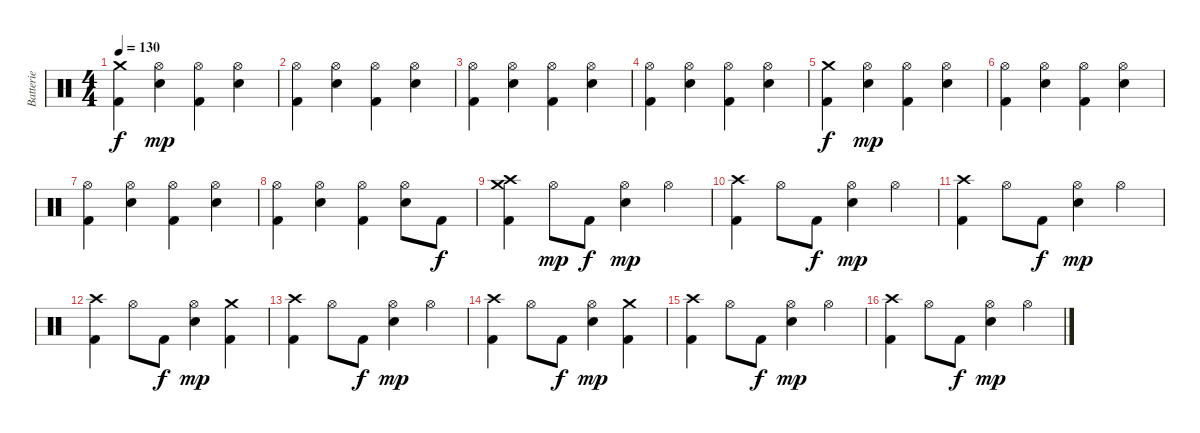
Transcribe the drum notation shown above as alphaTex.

\track ("Batterie" "Batterie") {instrument percussion}
\staff {score}
\articulation defaults
\ts (4 4)
\tempo 130
\clef neutral
\ks c
("Crash medium (hit)" "Kick (hit) 2").4{dy f} ("Hi-Hat (open)" "Electric Snare (hit)").4{dy mp} ("Hi-Hat (open)" "Kick (hit) 2").4 ("Hi-Hat (open)" "Electric Snare (hit)").4 |
("Hi-Hat (open)" "Kick (hit) 2").4 ("Hi-Hat (open)" "Electric Snare (hit)").4 ("Hi-Hat (open)" "Kick (hit) 2").4 ("Hi-Hat (open)" "Electric Snare (hit)").4 |
("Hi-Hat (open)" "Kick (hit) 2").4 ("Hi-Hat (open)" "Electric Snare (hit)").4 ("Hi-Hat (open)" "Kick (hit) 2").4 ("Hi-Hat (open)" "Electric Snare (hit)").4 |
("Hi-Hat (open)" "Kick (hit) 2").4 ("Hi-Hat (open)" "Electric Snare (hit)").4 ("Hi-Hat (open)" "Kick (hit) 2").4 ("Hi-Hat (open)" "Electric Snare (hit)").4 |
("Crash medium (hit)" "Kick (hit) 2").4{dy f} ("Hi-Hat (open)" "Electric Snare (hit)").4{dy mp} ("Hi-Hat (open)" "Kick (hit) 2").4 ("Hi-Hat (open)" "Electric Snare (hit)").4 |
("Hi-Hat (open)" "Kick (hit) 2").4 ("Hi-Hat (open)" "Electric Snare (hit)").4 ("Hi-Hat (open)" "Kick (hit) 2").4 ("Hi-Hat (open)" "Electric Snare (hit)").4 |
("Hi-Hat (open)" "Kick (hit) 2").4 ("Hi-Hat (open)" "Electric Snare (hit)").4 ("Hi-Hat (open)" "Kick (hit) 2").4 ("Hi-Hat (open)" "Electric Snare (hit)").4 |
("Hi-Hat (open)" "Kick (hit) 2").4 ("Hi-Hat (open)" "Electric Snare (hit)").4 ("Hi-Hat (open)" "Kick (hit) 2").4 ("Hi-Hat (open)" "Electric Snare (hit)").8 "Kick (hit) 2".8{dy f} |
("Crash medium (hit)" "Crash high (hit)" "Kick (hit) 2").4 "Hi-Hat (open)".8{dy mp} "Kick (hit) 2".8{dy f} ("Hi-Hat (open)" "Electric Snare (hit)").4{dy mp} "Hi-Hat (open)".4 |
("Crash high (hit)" "Kick (hit) 2").4 "Hi-Hat (open)".8 "Kick (hit) 2".8{dy f} ("Hi-Hat (open)" "Electric Snare (hit)").4{dy mp} "Hi-Hat (open)".4 |
("Crash high (hit)" "Kick (hit) 2").4 "Hi-Hat (open)".8 "Kick (hit) 2".8{dy f} ("Hi-Hat (open)" "Electric Snare (hit)").4{dy mp} "Hi-Hat (open)".4 |
("Crash high (hit)" "Kick (hit) 2").4 "Hi-Hat (open)".8 "Kick (hit) 2".8{dy f} ("Hi-Hat (open)" "Electric Snare (hit)").4{dy mp} ("Crash medium (hit)" "Kick (hit) 2").4 |
("Crash high (hit)" "Kick (hit) 2").4 "Hi-Hat (open)".8 "Kick (hit) 2".8{dy f} ("Hi-Hat (open)" "Electric Snare (hit)").4{dy mp} "Hi-Hat (open)".4 |
("Crash high (hit)" "Kick (hit) 2").4 "Hi-Hat (open)".8 "Kick (hit) 2".8{dy f} ("Hi-Hat (open)" "Electric Snare (hit)").4{dy mp} ("Crash medium (hit)" "Kick (hit) 2").4 |
("Crash high (hit)" "Kick (hit) 2").4 "Hi-Hat (open)".8 "Kick (hit) 2".8{dy f} ("Hi-Hat (open)" "Electric Snare (hit)").4{dy mp} "Hi-Hat (open)".4 |
("Crash high (hit)" "Kick (hit) 2").4 "Hi-Hat (open)".8 "Kick (hit) 2".8{dy f} ("Hi-Hat (open)" "Electric Snare (hit)").4{dy mp} "Hi-Hat (open)".4
